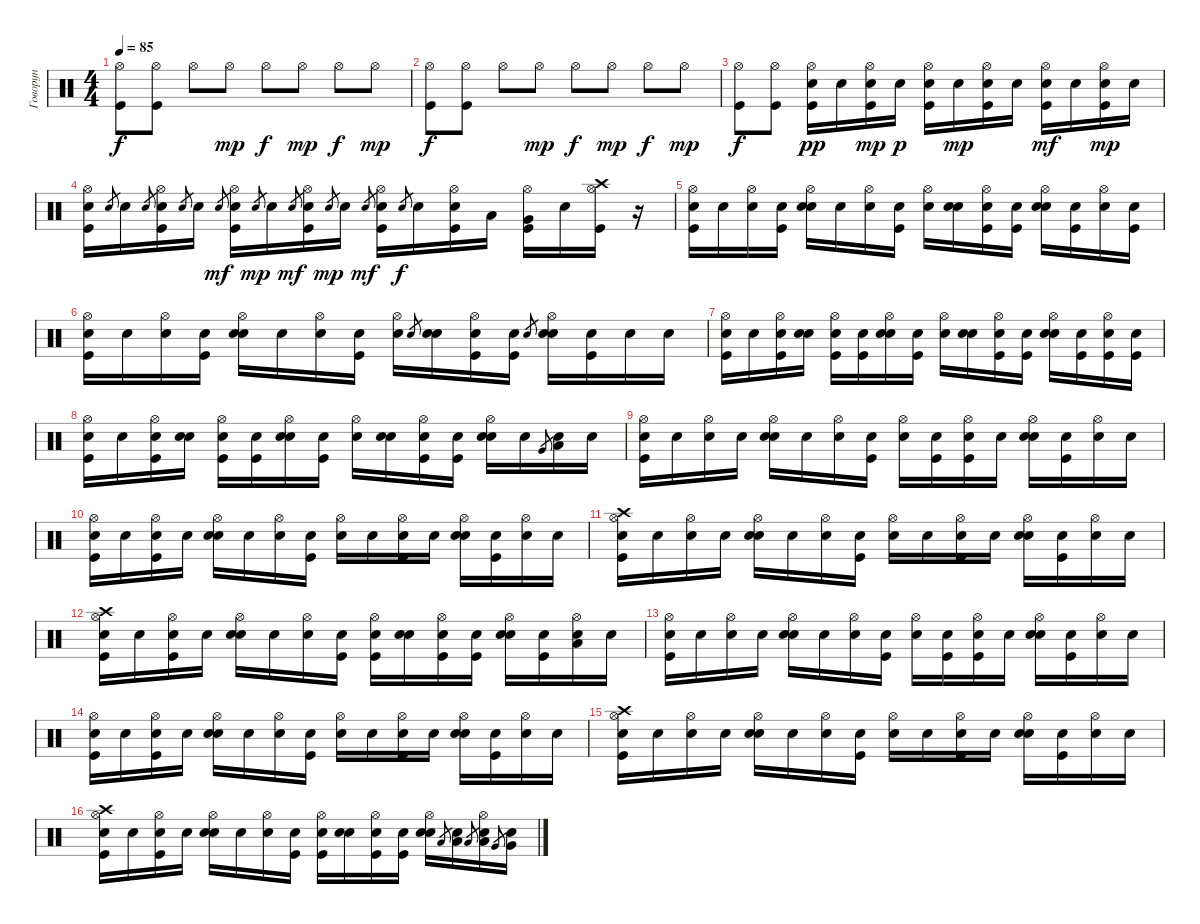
\track ("Говорун" "Говорун") {instrument percussion}
\staff {score}
\articulation defaults
\ts (4 4)
\tempo 85
\clef neutral
\ks c
("Hi-Hat (open)" "Kick (hit)").8{dy f} ("Hi-Hat (open)" "Kick (hit)").8 "Hi-Hat (open)".8 "Hi-Hat (open)".8{dy mp} "Hi-Hat (open)".8{dy f} "Hi-Hat (open)".8{dy mp} "Hi-Hat (open)".8{dy f} "Hi-Hat (open)".8{dy mp} |
("Hi-Hat (open)" "Kick (hit)").8{dy f} ("Hi-Hat (open)" "Kick (hit)").8 "Hi-Hat (open)".8 "Hi-Hat (open)".8{dy mp} "Hi-Hat (open)".8{dy f} "Hi-Hat (open)".8{dy mp} "Hi-Hat (open)".8{dy f} "Hi-Hat (open)".8{dy mp} |
("Hi-Hat (open)" "Kick (hit)").8{dy f} ("Hi-Hat (open)" "Kick (hit)").8 ("Kick (hit)" "Electric Snare (hit)" "Hi-Hat (open)").16{dy pp} "Electric Snare (hit)".16 ("Kick (hit)" "Electric Snare (hit)" "Hi-Hat (open)").16{dy mp} "Electric Snare (hit)".16{dy p} ("Kick (hit)" "Electric Snare (hit)" "Hi-Hat (open)").16 "Electric Snare (hit)".16{dy mp} ("Kick (hit)" "Electric Snare (hit)" "Hi-Hat (open)").16 "Electric Snare (hit)".16 ("Kick (hit)" "Electric Snare (hit)" "Hi-Hat (open)").16{dy mf} "Electric Snare (hit)".16 ("Kick (hit)" "Electric Snare (hit)" "Hi-Hat (open)").16{dy mp} "Electric Snare (hit)".16 |
("Kick (hit)" "Electric Snare (hit)" "Hi-Hat (open)").16 "Electric Snare (hit)".8{gr} "Electric Snare (hit)".16 "Electric Snare (hit)".8{gr} ("Kick (hit)" "Electric Snare (hit)" "Hi-Hat (open)").16 "Electric Snare (hit)".8{gr} "Electric Snare (hit)".16 "Electric Snare (hit)".8{gr dy mf} ("Kick (hit)" "Electric Snare (hit)" "Hi-Hat (open)").16 "Electric Snare (hit)".8{gr dy mp} "Electric Snare (hit)".16 "Electric Snare (hit)".8{gr dy mf} ("Kick (hit)" "Electric Snare (hit)" "Hi-Hat (open)").16 "Electric Snare (hit)".8{gr dy mp} "Electric Snare (hit)".16 "Electric Snare (hit)".8{gr dy mf} ("Kick (hit)" "Electric Snare (hit)" "Hi-Hat (open)").16 "Electric Snare (hit)".8{gr dy f} "Electric Snare (hit)".16 ("Kick (hit)" "Electric Snare (hit)" "Hi-Hat (open)").16 "Low Tom (hit)".16 ("Kick (hit)" "Very Low Tom (hit)" "Hi-Hat (open)").16 "Electric Snare (hit)".16 ("Kick (hit)" "Crash high (hit)" "Hi-Hat (open)").16 r.16 |
("Kick (hit)" "Hi-Hat (open)" "Snare (hit)"{x}).16 "Snare (hit)"{x}.16 ("Hi-Hat (open)" "Snare (hit)"{x}).16 ("Kick (hit)" "Snare (hit)"{x}).16 ("Snare (hit) 2" "Hi-Hat (open)" "Snare (hit)"{x}).16 "Snare (hit)"{x}.16 ("Hi-Hat (open)" "Snare (hit)"{x}).16 ("Kick (hit)" "Snare (hit)"{x}).16 ("Hi-Hat (open)" "Snare (hit)"{x}).16 ("Snare (hit) 2" "Snare (hit)"{x}).16 ("Kick (hit)" "Hi-Hat (open)" "Snare (hit)"{x}).16 ("Kick (hit)" "Snare (hit)"{x}).16 ("Snare (hit) 2" "Hi-Hat (open)" "Snare (hit)"{x}).16 ("Kick (hit)" "Snare (hit)"{x}).16 ("Hi-Hat (open)" "Snare (hit)"{x}).16 ("Kick (hit)" "Snare (hit)"{x}).16 |
("Kick (hit)" "Hi-Hat (open)" "Snare (hit)"{x}).16 "Snare (hit)"{x}.16 ("Hi-Hat (open)" "Snare (hit)"{x}).16 ("Kick (hit)" "Snare (hit)"{x}).16 ("Snare (hit) 2" "Hi-Hat (open)" "Snare (hit)"{x}).16 "Snare (hit)"{x}.16 ("Hi-Hat (open)" "Snare (hit)"{x}).16 ("Kick (hit)" "Snare (hit)"{x}).16 ("Hi-Hat (open)" "Snare (hit)"{x}).16 "Snare (hit) 2".8{gr} ("Snare (hit) 2" "Snare (hit)"{x}).16 ("Kick (hit)" "Hi-Hat (open)" "Snare (hit)"{x}).16 ("Kick (hit)" "Snare (hit)"{x}).16 "Snare (hit) 2".8{gr} ("Snare (hit) 2" "Hi-Hat (open)" "Snare (hit)"{x}).16 ("Kick (hit)" "Snare (hit)"{x}).16 "Snare (hit)"{x}.16 "Snare (hit)"{x}.16 |
("Kick (hit)" "Hi-Hat (open)" "Snare (hit)"{x}).16 "Snare (hit)"{x}.16 ("Kick (hit)" "Hi-Hat (open)" "Snare (hit)"{x}).16 ("Snare (hit) 2" "Snare (hit)"{x}).16 ("Kick (hit)" "Hi-Hat (open)" "Snare (hit)"{x}).16 ("Kick (hit)" "Snare (hit)"{x}).16 ("Snare (hit) 2" "Hi-Hat (open)" "Snare (hit)"{x}).16 ("Kick (hit)" "Snare (hit)"{x}).16 ("Hi-Hat (open)" "Snare (hit)"{x}).16 ("Snare (hit) 2" "Snare (hit)"{x}).16 ("Kick (hit)" "Hi-Hat (open)" "Snare (hit)"{x}).16 ("Kick (hit)" "Snare (hit)"{x}).16 ("Snare (hit) 2" "Hi-Hat (open)" "Snare (hit)"{x}).16 ("Kick (hit)" "Snare (hit)"{x}).16 ("Kick (hit)" "Hi-Hat (open)" "Snare (hit)"{x}).16 ("Kick (hit)" "Snare (hit)"{x}).16 |
("Kick (hit)" "Hi-Hat (open)" "Snare (hit)"{x}).16 "Snare (hit)"{x}.16 ("Kick (hit)" "Hi-Hat (open)" "Snare (hit)"{x}).16 ("Snare (hit) 2" "Snare (hit)"{x}).16 ("Kick (hit)" "Hi-Hat (open)" "Snare (hit)"{x}).16 ("Kick (hit)" "Snare (hit)"{x}).16 ("Snare (hit) 2" "Hi-Hat (open)" "Snare (hit)"{x}).16 ("Kick (hit)" "Snare (hit)"{x}).16 ("Hi-Hat (open)" "Snare (hit)"{x}).16 ("Snare (hit) 2" "Snare (hit)"{x}).16 ("Kick (hit)" "Hi-Hat (open)" "Snare (hit)"{x}).16 ("Kick (hit)" "Snare (hit)"{x}).16 ("Snare (hit) 2" "Hi-Hat (open)" "Snare (hit)"{x}).16 "Snare (hit)"{x}.16 "Very Low Tom (hit)".8{gr} ("Low Tom (hit)" "Snare (hit)"{x}).16 "Snare (hit)"{x}.16 |
("Kick (hit)" "Hi-Hat (open)" "Snare (hit)"{x}).16 "Snare (hit)"{x}.16 ("Hi-Hat (open)" "Snare (hit)"{x}).16 "Snare (hit)"{x}.16 ("Snare (hit) 2" "Hi-Hat (open)" "Snare (hit)"{x}).16 "Snare (hit)"{x}.16 ("Hi-Hat (open)" "Snare (hit)"{x}).16 ("Kick (hit)" "Snare (hit)"{x}).16 ("Hi-Hat (open)" "Snare (hit)"{x}).16 ("Kick (hit)" "Snare (hit)"{x}).16 ("Kick (hit)" "Hi-Hat (open)" "Snare (hit)"{x}).16 "Snare (hit)"{x}.16 ("Snare (hit) 2" "Hi-Hat (open)" "Snare (hit)"{x}).16 ("Kick (hit)" "Snare (hit)"{x}).16 ("Hi-Hat (open)" "Snare (hit)"{x}).16 "Snare (hit)"{x}.16 |
("Kick (hit)" "Hi-Hat (open)" "Snare (hit)"{x}).16 "Snare (hit)"{x}.16 ("Kick (hit)" "Hi-Hat (open)" "Snare (hit)"{x}).16 "Snare (hit)"{x}.16 ("Snare (hit) 2" "Hi-Hat (open)" "Snare (hit)"{x}).16 "Snare (hit)"{x}.16 ("Hi-Hat (open)" "Snare (hit)"{x}).16 ("Kick (hit)" "Snare (hit)"{x}).16 ("Hi-Hat (open)" "Snare (hit)"{x}).16 "Snare (hit)"{x}.16 ("Kick (hit)" "Hi-Hat (open)" "Snare (hit)"{x}).16 "Snare (hit)"{x}.16 ("Snare (hit) 2" "Hi-Hat (open)" "Snare (hit)"{x}).16 ("Kick (hit)" "Snare (hit)"{x}).16 ("Hi-Hat (open)" "Snare (hit)"{x}).16 "Snare (hit)"{x}.16 |
("Kick (hit)" "Hi-Hat (open)" "Crash high (hit)" "Snare (hit)"{x}).16 "Snare (hit)"{x}.16 ("Hi-Hat (open)" "Snare (hit)"{x}).16 "Snare (hit)"{x}.16 ("Snare (hit) 2" "Hi-Hat (open)" "Snare (hit)"{x}).16 "Snare (hit)"{x}.16 ("Hi-Hat (open)" "Snare (hit)"{x}).16 ("Kick (hit)" "Snare (hit)"{x}).16 ("Hi-Hat (open)" "Snare (hit)"{x}).16 "Snare (hit)"{x}.16 ("Kick (hit)" "Hi-Hat (open)" "Snare (hit)"{x}).16 "Snare (hit)"{x}.16 ("Snare (hit) 2" "Hi-Hat (open)" "Snare (hit)"{x}).16 ("Kick (hit)" "Snare (hit)"{x}).16 ("Hi-Hat (open)" "Snare (hit)"{x}).16 "Snare (hit)"{x}.16 |
("Kick (hit)" "Hi-Hat (open)" "Crash high (hit)" "Snare (hit)"{x}).16 "Snare (hit)"{x}.16 ("Kick (hit)" "Hi-Hat (open)" "Snare (hit)"{x}).16 "Snare (hit)"{x}.16 ("Snare (hit) 2" "Hi-Hat (open)" "Snare (hit)"{x}).16 "Snare (hit)"{x}.16 ("Hi-Hat (open)" "Snare (hit)"{x}).16 ("Kick (hit)" "Snare (hit)"{x}).16 ("Kick (hit)" "Hi-Hat (open)" "Snare (hit)"{x}).16 ("Snare (hit) 2" "Snare (hit)"{x}).16 ("Kick (hit)" "Hi-Hat (open)" "Snare (hit)"{x}).16 ("Kick (hit)" "Snare (hit)"{x}).16 ("Snare (hit) 2" "Hi-Hat (open)" "Snare (hit)"{x}).16 ("Kick (hit)" "Snare (hit)"{x}).16 ("Low Tom (hit)" "Hi-Hat (open)" "Snare (hit)"{x}).16 "Snare (hit)"{x}.16 |
("Kick (hit)" "Hi-Hat (open)" "Snare (hit)"{x}).16 "Snare (hit)"{x}.16 ("Hi-Hat (open)" "Snare (hit)"{x}).16 "Snare (hit)"{x}.16 ("Snare (hit) 2" "Hi-Hat (open)" "Snare (hit)"{x}).16 "Snare (hit)"{x}.16 ("Hi-Hat (open)" "Snare (hit)"{x}).16 ("Kick (hit)" "Snare (hit)"{x}).16 ("Hi-Hat (open)" "Snare (hit)"{x}).16 ("Kick (hit)" "Snare (hit)"{x}).16 ("Kick (hit)" "Hi-Hat (open)" "Snare (hit)"{x}).16 "Snare (hit)"{x}.16 ("Snare (hit) 2" "Hi-Hat (open)" "Snare (hit)"{x}).16 ("Kick (hit)" "Snare (hit)"{x}).16 ("Hi-Hat (open)" "Snare (hit)"{x}).16 "Snare (hit)"{x}.16 |
("Kick (hit)" "Hi-Hat (open)" "Snare (hit)"{x}).16 "Snare (hit)"{x}.16 ("Kick (hit)" "Hi-Hat (open)" "Snare (hit)"{x}).16 "Snare (hit)"{x}.16 ("Snare (hit) 2" "Hi-Hat (open)" "Snare (hit)"{x}).16 "Snare (hit)"{x}.16 ("Hi-Hat (open)" "Snare (hit)"{x}).16 ("Kick (hit)" "Snare (hit)"{x}).16 ("Hi-Hat (open)" "Snare (hit)"{x}).16 "Snare (hit)"{x}.16 ("Kick (hit)" "Hi-Hat (open)" "Snare (hit)"{x}).16 "Snare (hit)"{x}.16 ("Snare (hit) 2" "Hi-Hat (open)" "Snare (hit)"{x}).16 ("Kick (hit)" "Snare (hit)"{x}).16 ("Hi-Hat (open)" "Snare (hit)"{x}).16 "Snare (hit)"{x}.16 |
("Kick (hit)" "Hi-Hat (open)" "Crash high (hit)" "Snare (hit)"{x}).16 "Snare (hit)"{x}.16 ("Hi-Hat (open)" "Snare (hit)"{x}).16 "Snare (hit)"{x}.16 ("Snare (hit) 2" "Hi-Hat (open)" "Snare (hit)"{x}).16 "Snare (hit)"{x}.16 ("Hi-Hat (open)" "Snare (hit)"{x}).16 ("Kick (hit)" "Snare (hit)"{x}).16 ("Hi-Hat (open)" "Snare (hit)"{x}).16 "Snare (hit)"{x}.16 ("Kick (hit)" "Hi-Hat (open)" "Snare (hit)"{x}).16 "Snare (hit)"{x}.16 ("Snare (hit) 2" "Hi-Hat (open)" "Snare (hit)"{x}).16 ("Kick (hit)" "Snare (hit)"{x}).16 ("Hi-Hat (open)" "Snare (hit)"{x}).16 "Snare (hit)"{x}.16 |
("Kick (hit)" "Hi-Hat (open)" "Crash high (hit)" "Snare (hit)"{x}).16 "Snare (hit)"{x}.16 ("Kick (hit)" "Hi-Hat (open)" "Snare (hit)"{x}).16 "Snare (hit)"{x}.16 ("Snare (hit) 2" "Hi-Hat (open)" "Snare (hit)"{x}).16 "Snare (hit)"{x}.16 ("Hi-Hat (open)" "Snare (hit)"{x}).16 ("Kick (hit)" "Snare (hit)"{x}).16 ("Kick (hit)" "Hi-Hat (open)" "Snare (hit)"{x}).16 ("Snare (hit) 2" "Snare (hit)"{x}).16 ("Kick (hit)" "Hi-Hat (open)" "Snare (hit)"{x}).16 ("Kick (hit)" "Snare (hit)"{x}).16 ("Snare (hit) 2" "Hi-Hat (open)" "Snare (hit)"{x}).16 "Low Tom (hit)".8{gr} ("Low Tom (hit)" "Snare (hit)"{x}).16 "Low Tom (hit)".8{gr} ("Low Tom (hit)" "Hi-Hat (open)" "Snare (hit)"{x}).16 "Very Low Tom (hit)".8{gr} ("Very Low Tom (hit)" "Snare (hit)"{x}).16
